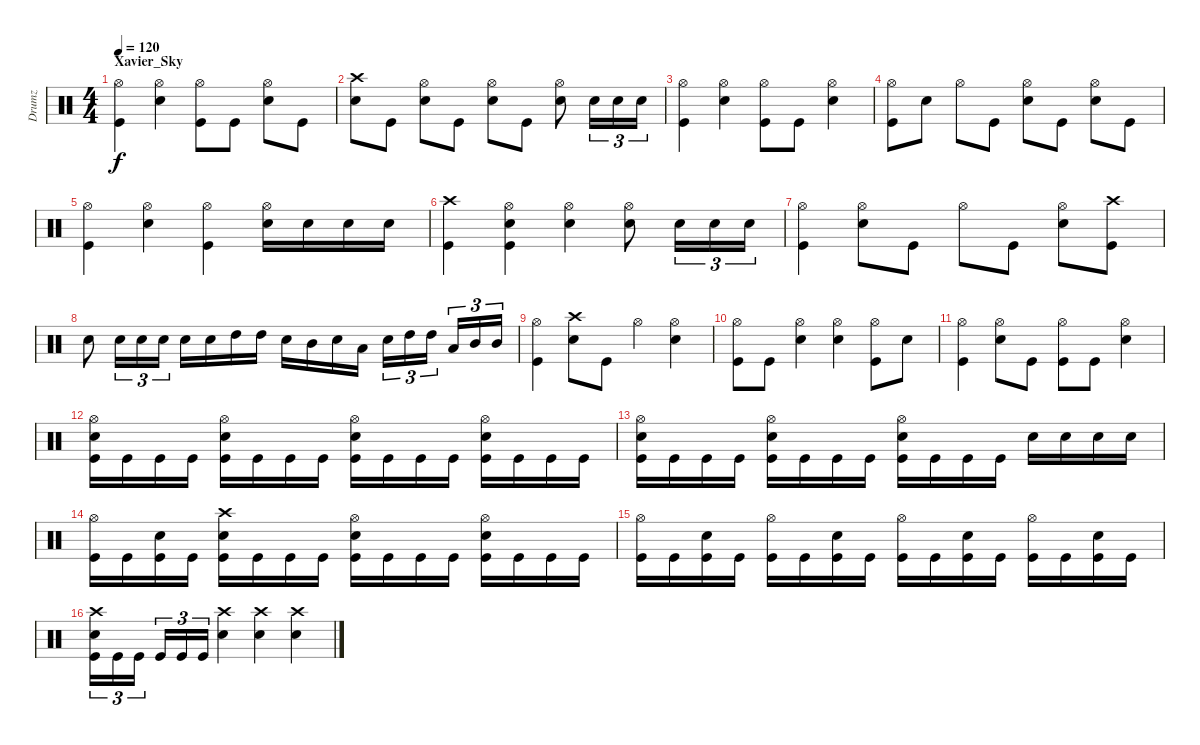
\track ("Drumz" "Drumz") {instrument percussion}
\staff {score}
\articulation defaults
\ts (4 4)
\section ("" "Xavier_Sky")
\tempo 120
\clef neutral
\ks c
("Hi-Hat (open)" "Kick (hit)").4{dy f volume 16} ("Hi-Hat (open)" "Snare (hit) 2").4 ("Hi-Hat (open)" "Kick (hit)").8 "Kick (hit)".8 ("Hi-Hat (open)" "Snare (hit) 2").8 "Kick (hit)".8 |
("Crash high (hit)" "Snare (hit) 2").8 "Kick (hit)".8 ("Hi-Hat (open)" "Snare (hit) 2").8 "Kick (hit)".8 ("Hi-Hat (open)" "Snare (hit) 2").8 "Kick (hit)".8 ("Hi-Hat (open)" "Snare (hit) 2").8 "Snare (hit) 2".16{tu (3 2)} "Snare (hit) 2".16{tu (3 2)} "Snare (hit) 2".16{tu (3 2)} |
("Hi-Hat (open)" "Kick (hit)").4 ("Hi-Hat (open)" "Snare (hit) 2").4 ("Hi-Hat (open)" "Kick (hit)").8 "Kick (hit)".8 ("Hi-Hat (open)" "Snare (hit) 2").4 |
("Hi-Hat (open)" "Kick (hit)").8 "Snare (hit) 2".8 "Hi-Hat (open)".8 "Kick (hit)".8 ("Hi-Hat (open)" "Snare (hit) 2").8 "Kick (hit)".8 ("Hi-Hat (open)" "Snare (hit) 2").8 "Kick (hit)".8 |
("Hi-Hat (open)" "Kick (hit)").4 ("Hi-Hat (open)" "Snare (hit) 2").4 ("Hi-Hat (open)" "Kick (hit)").4 ("Hi-Hat (open)" "Snare (hit) 2").16 "Snare (hit) 2".16 "Snare (hit) 2".16 "Snare (hit) 2".16 |
("Crash high (hit)" "Kick (hit)").4 ("Hi-Hat (open)" "Snare (hit) 2" "Kick (hit)").4 ("Hi-Hat (open)" "Snare (hit) 2").4 ("Hi-Hat (open)" "Snare (hit) 2").8 "Snare (hit) 2".16{tu (3 2)} "Snare (hit) 2".16{tu (3 2)} "Snare (hit) 2".16{tu (3 2)} |
("Hi-Hat (open)" "Kick (hit)").4 ("Hi-Hat (open)" "Snare (hit) 2").8 "Kick (hit)".8 "Hi-Hat (open)".8 "Kick (hit)".8 ("Hi-Hat (open)" "Snare (hit) 2").8 ("Crash high (hit)" "Kick (hit)").8 |
"Snare (hit) 2".8 "Snare (hit) 2".16{tu (3 2)} "Snare (hit) 2".16{tu (3 2)} "Snare (hit) 2".16{tu (3 2)} "Snare (hit) 2".16 "Snare (hit) 2".16 "High Tom (hit)".16 "High Tom (hit)".16 "Snare (hit) 2".16 "Mid Tom (hit)".16 "Snare (hit) 2".16 "Low Tom (hit)".16 "Snare (hit) 2".16{tu (3 2)} "High Tom (hit)".16{tu (3 2)} "High Tom (hit)".16{tu (3 2)} "Low Tom (hit)".16{tu (3 2)} "Mid Tom (hit)".16{tu (3 2)} "Mid Tom (hit)".16{tu (3 2)} |
("Hi-Hat (open)" "Kick (hit)").4 ("Crash high (hit)" "Snare (hit) 2").8 "Kick (hit)".8 "Hi-Hat (open)".4 ("Hi-Hat (open)" "Snare (hit) 2").4 |
("Hi-Hat (open)" "Kick (hit)").8 "Kick (hit)".8 ("Hi-Hat (open)" "Snare (hit) 2").4 ("Hi-Hat (open)" "Snare (hit) 2").4 ("Hi-Hat (open)" "Kick (hit)").8 "Snare (hit) 2".8 |
("Hi-Hat (open)" "Kick (hit)").4 ("Hi-Hat (open)" "Snare (hit) 2").8 "Kick (hit)".8 ("Hi-Hat (open)" "Kick (hit)").8 "Kick (hit)".8 ("Hi-Hat (open)" "Snare (hit) 2").4 |
("Hi-Hat (open)" "Snare (hit) 2" "Kick (hit)").16 "Kick (hit)".16 "Kick (hit)".16 "Kick (hit)".16 ("Hi-Hat (open)" "Snare (hit) 2" "Kick (hit)").16 "Kick (hit)".16 "Kick (hit)".16 "Kick (hit)".16 ("Hi-Hat (open)" "Snare (hit) 2" "Kick (hit)").16 "Kick (hit)".16 "Kick (hit)".16 "Kick (hit)".16 ("Hi-Hat (open)" "Snare (hit) 2" "Kick (hit)").16 "Kick (hit)".16 "Kick (hit)".16 "Kick (hit)".16 |
("Hi-Hat (open)" "Snare (hit) 2" "Kick (hit)").16 "Kick (hit)".16 "Kick (hit)".16 "Kick (hit)".16 ("Hi-Hat (open)" "Snare (hit) 2" "Kick (hit)").16 "Kick (hit)".16 "Kick (hit)".16 "Kick (hit)".16 ("Hi-Hat (open)" "Snare (hit) 2" "Kick (hit)").16 "Kick (hit)".16 "Kick (hit)".16 "Kick (hit)".16 "Snare (hit) 2".16 "Snare (hit) 2".16 "Snare (hit) 2".16 "Snare (hit) 2".16 |
("Hi-Hat (open)" "Kick (hit)").16 "Kick (hit)".16 ("Snare (hit) 2" "Kick (hit)").16 "Kick (hit)".16 ("Crash high (hit)" "Snare (hit) 2" "Kick (hit)").16 "Kick (hit)".16 "Kick (hit)".16 "Kick (hit)".16 ("Hi-Hat (open)" "Snare (hit) 2" "Kick (hit)").16 "Kick (hit)".16 "Kick (hit)".16 "Kick (hit)".16 ("Hi-Hat (open)" "Snare (hit) 2" "Kick (hit)").16 "Kick (hit)".16 "Kick (hit)".16 "Kick (hit)".16 |
("Hi-Hat (open)" "Kick (hit)").16 "Kick (hit)".16 ("Snare (hit) 2" "Kick (hit)").16 "Kick (hit)".16 ("Hi-Hat (open)" "Kick (hit)").16 "Kick (hit)".16 ("Snare (hit) 2" "Kick (hit)").16 "Kick (hit)".16 ("Hi-Hat (open)" "Kick (hit)").16 "Kick (hit)".16 ("Snare (hit) 2" "Kick (hit)").16 "Kick (hit)".16 ("Hi-Hat (open)" "Kick (hit)").16 "Kick (hit)".16 ("Snare (hit) 2" "Kick (hit)").16 "Kick (hit)".16 |
("Crash high (hit)" "Snare (hit) 2" "Kick (hit)").16{tu (3 2)} "Kick (hit)".16{tu (3 2)} "Kick (hit)".16{tu (3 2)} "Kick (hit)".16{tu (3 2)} "Kick (hit)".16{tu (3 2)} "Kick (hit)".16{tu (3 2)} ("Crash high (hit)" "Snare (hit) 2").4 ("Crash high (hit)" "Snare (hit) 2").4 ("Crash high (hit)" "Snare (hit) 2").4
